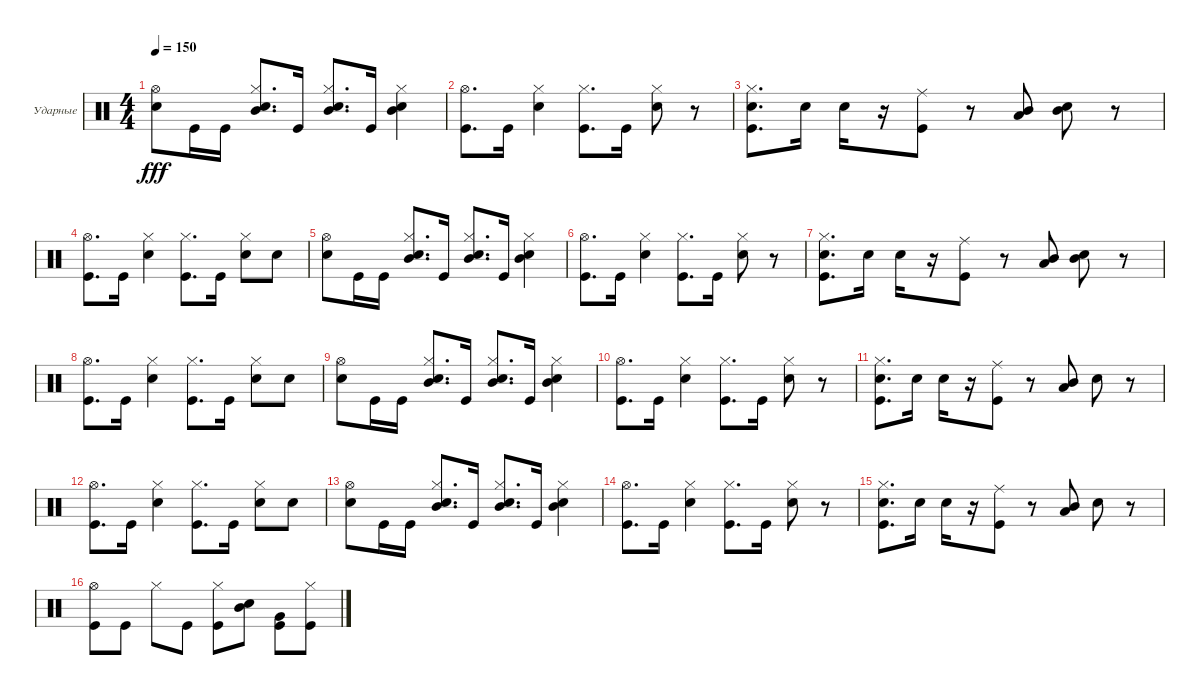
\bracketExtendMode groupsimilarinstruments
\firstSystemTrackNameOrientation horizontal
\otherSystemsTrackNameOrientation horizontal
\track ("Максим Удалов" "Ударные") {instrument percussion}
\staff {score}
\articulation defaults
\ts (4 4)
\tempo 150
\clef neutral
\ks c
("Hi-Hat (open)" "Snare (hit) 2").8{dy fff} "Kick (hit)".16 "Kick (hit)".16 ("Hi-Hat (closed)" "Mid Tom (hit)" "Snare (hit) 2").8{d} "Kick (hit)".16 ("Hi-Hat (closed)" "Mid Tom (hit)" "Snare (hit) 2").8{d} "Kick (hit)".16 ("Hi-Hat (closed)" "Mid Tom (hit)" "Snare (hit) 2").4 |
("Hi-Hat (open)" "Kick (hit)").8{d} "Kick (hit)".16 ("Hi-Hat (closed)" "Snare (hit) 2").4 ("Hi-Hat (closed)" "Kick (hit)").8{d} "Kick (hit)".16 ("Hi-Hat (closed)" "Snare (hit) 2").8 r.8 |
("Hi-Hat (closed)" "Snare (hit) 2" "Kick (hit)").8{d} "Snare (hit) 2".16 "Snare (hit) 2".16 r.16 ("Ride (middle)" "Kick (hit)").8 r.8 ("Low Tom (hit)" "Mid Tom (hit)").8 ("Mid Tom (hit)" "Snare (hit) 2").8 r.8 |
("Hi-Hat (open)" "Kick (hit)").8{d} "Kick (hit)".16 ("Hi-Hat (closed)" "Snare (hit) 2").4 ("Hi-Hat (closed)" "Kick (hit)").8{d} "Kick (hit)".16 ("Hi-Hat (closed)" "Snare (hit) 2").8 "Snare (hit) 2".8 |
("Hi-Hat (open)" "Snare (hit) 2").8 "Kick (hit)".16 "Kick (hit)".16 ("Hi-Hat (closed)" "Mid Tom (hit)" "Snare (hit) 2").8{d} "Kick (hit)".16 ("Hi-Hat (closed)" "Mid Tom (hit)" "Snare (hit) 2").8{d} "Kick (hit)".16 ("Hi-Hat (closed)" "Mid Tom (hit)" "Snare (hit) 2").4 |
("Hi-Hat (open)" "Kick (hit)").8{d} "Kick (hit)".16 ("Hi-Hat (closed)" "Snare (hit) 2").4 ("Hi-Hat (closed)" "Kick (hit)").8{d} "Kick (hit)".16 ("Hi-Hat (closed)" "Snare (hit) 2").8 r.8 |
("Hi-Hat (closed)" "Snare (hit) 2" "Kick (hit)").8{d} "Snare (hit) 2".16 "Snare (hit) 2".16 r.16 ("Ride (middle)" "Kick (hit)").8 r.8 ("Low Tom (hit)" "Mid Tom (hit)").8 ("Mid Tom (hit)" "Snare (hit) 2").8 r.8 |
("Hi-Hat (open)" "Kick (hit)").8{d} "Kick (hit)".16 ("Hi-Hat (closed)" "Snare (hit) 2").4 ("Hi-Hat (closed)" "Kick (hit)").8{d} "Kick (hit)".16 ("Hi-Hat (closed)" "Snare (hit) 2").8 "Snare (hit) 2".8 |
("Hi-Hat (open)" "Snare (hit) 2").8 "Kick (hit)".16 "Kick (hit)".16 ("Hi-Hat (closed)" "Mid Tom (hit)" "Snare (hit) 2").8{d} "Kick (hit)".16 ("Hi-Hat (closed)" "Mid Tom (hit)" "Snare (hit) 2").8{d} "Kick (hit)".16 ("Hi-Hat (closed)" "Mid Tom (hit)" "Snare (hit) 2").4 |
("Hi-Hat (open)" "Kick (hit)").8{d} "Kick (hit)".16 ("Hi-Hat (closed)" "Snare (hit) 2").4 ("Hi-Hat (closed)" "Kick (hit)").8{d} "Kick (hit)".16 ("Hi-Hat (closed)" "Snare (hit) 2").8 r.8 |
("Hi-Hat (closed)" "Snare (hit) 2" "Kick (hit)").8{d} "Snare (hit) 2".16 "Snare (hit) 2".16 r.16 ("Ride (middle)" "Kick (hit)").8 r.8 ("Low Tom (hit)" "Mid Tom (hit)").8 "Snare (hit) 2".8 r.8 |
("Hi-Hat (open)" "Kick (hit)").8{d} "Kick (hit)".16 ("Hi-Hat (closed)" "Snare (hit) 2").4 ("Hi-Hat (closed)" "Kick (hit)").8{d} "Kick (hit)".16 ("Hi-Hat (closed)" "Snare (hit) 2").8 "Snare (hit) 2".8 |
("Hi-Hat (open)" "Snare (hit) 2").8 "Kick (hit)".16 "Kick (hit)".16 ("Hi-Hat (closed)" "Mid Tom (hit)" "Snare (hit) 2").8{d} "Kick (hit)".16 ("Hi-Hat (closed)" "Mid Tom (hit)" "Snare (hit) 2").8{d} "Kick (hit)".16 ("Hi-Hat (closed)" "Mid Tom (hit)" "Snare (hit) 2").4 |
("Hi-Hat (open)" "Kick (hit)").8{d} "Kick (hit)".16 ("Hi-Hat (closed)" "Snare (hit) 2").4 ("Hi-Hat (closed)" "Kick (hit)").8{d} "Kick (hit)".16 ("Hi-Hat (closed)" "Snare (hit) 2").8 r.8 |
("Hi-Hat (closed)" "Snare (hit) 2" "Kick (hit)").8{d} "Snare (hit) 2".16 "Snare (hit) 2".16 r.16 ("Ride (middle)" "Kick (hit)").8 r.8 ("Low Tom (hit)" "Mid Tom (hit)").8 "Snare (hit) 2".8 r.8 |
("Hi-Hat (open)" "Kick (hit)").8 "Kick (hit)".8 "Hi-Hat (closed)".8 "Kick (hit)".8 ("Kick (hit)" "Hi-Hat (closed)").8 ("Snare (hit) 2" "Mid Tom (hit)").8 ("Very Low Tom (hit)" "Kick (hit)").8 ("Kick (hit)" "Hi-Hat (closed)").8
